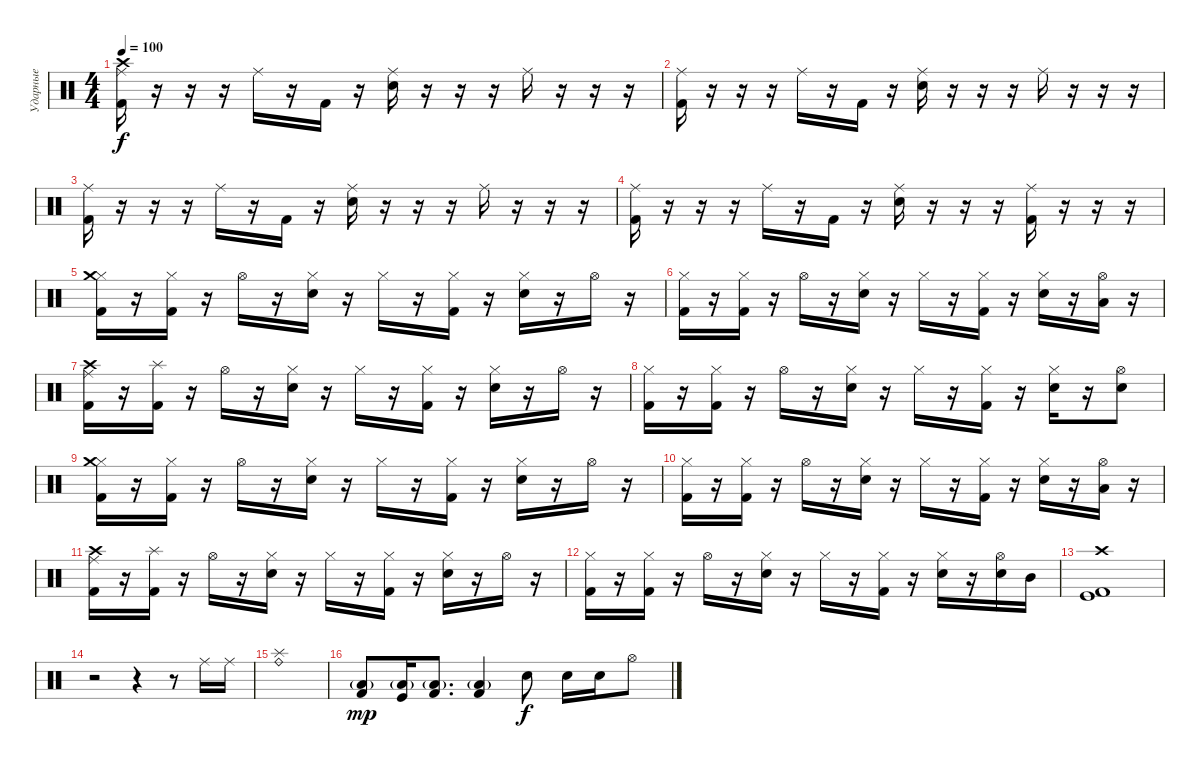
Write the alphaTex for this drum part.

\track ("Ударные" "Ударные") {instrument percussion}
\staff {score}
\articulation defaults
\ts (4 4)
\tempo 100
\clef neutral
\ks c
("Ride (middle)" "Crash high (hit)" "Kick (hit) 2").16{dy f} r.16 r.16 r.16 "Ride (middle)".16 r.16 "Kick (hit) 2".16 r.16 ("Ride (middle)" "Snare (hit) 2").16 r.16 r.16 r.16 "Ride (middle)".16 r.16 r.16 r.16 |
("Ride (middle)" "Kick (hit) 2").16 r.16 r.16 r.16 "Ride (middle)".16 r.16 "Kick (hit) 2".16 r.16 ("Ride (middle)" "Snare (hit) 2").16 r.16 r.16 r.16 "Ride (middle)".16 r.16 r.16 r.16 |
("Ride (middle)" "Kick (hit) 2").16 r.16 r.16 r.16 "Ride (middle)".16 r.16 "Kick (hit) 2".16 r.16 ("Ride (middle)" "Snare (hit) 2").16 r.16 r.16 r.16 "Ride (middle)".16 r.16 r.16 r.16 |
("Ride (middle)" "Kick (hit) 2").16 r.16 r.16 r.16 "Ride (middle)".16 r.16 "Kick (hit) 2".16 r.16 ("Ride (middle)" "Snare (hit) 2").16 r.16 r.16 r.16 ("Ride (middle)" "Kick (hit) 2").16 r.16 r.16 r.16 |
("Hi-Hat (closed)" "Crash medium (hit)" "Kick (hit) 2").16 r.16 ("Hi-Hat (closed)" "Kick (hit) 2").16 r.16 "Hi-Hat (open)".16 r.16 ("Hi-Hat (closed)" "Electric Snare (hit)").16 r.16 "Hi-Hat (closed)".16 r.16 ("Hi-Hat (closed)" "Kick (hit) 2").16 r.16 ("Hi-Hat (closed)" "Electric Snare (hit)").16 r.16 "Hi-Hat (open)".16 r.16 |
("Hi-Hat (closed)" "Kick (hit) 2").16 r.16 ("Hi-Hat (closed)" "Kick (hit) 2").16 r.16 "Hi-Hat (open)".16 r.16 ("Hi-Hat (closed)" "Electric Snare (hit)").16 r.16 "Hi-Hat (closed)".16 r.16 ("Hi-Hat (closed)" "Kick (hit) 2").16 r.16 ("Hi-Hat (closed)" "Electric Snare (hit)").16 r.16 ("Hi-Hat (open)" "Low Tom (hit)").16 r.16 |
("Ride (middle)" "Crash high (hit)" "Kick (hit) 2").16 r.16 ("Splash (hit)" "Kick (hit) 2").16 r.16 "Hi-Hat (open)".16 r.16 ("Hi-Hat (closed)" "Electric Snare (hit)").16 r.16 "Hi-Hat (closed)".16 r.16 ("Hi-Hat (closed)" "Kick (hit) 2").16 r.16 ("Hi-Hat (closed)" "Electric Snare (hit)").16 r.16 "Hi-Hat (open)".16 r.16 |
("Hi-Hat (closed)" "Kick (hit) 2").16 r.16 ("Hi-Hat (closed)" "Kick (hit) 2").16 r.16 "Hi-Hat (open)".16 r.16 ("Hi-Hat (closed)" "Electric Snare (hit)").16 r.16 "Hi-Hat (closed)".16 r.16 ("Hi-Hat (closed)" "Kick (hit) 2").16 r.16 ("Hi-Hat (closed)" "Electric Snare (hit)").16 r.16 ("Hi-Hat (open)" "Electric Snare (hit)").8 |
("Hi-Hat (closed)" "Crash medium (hit)" "Kick (hit) 2").16 r.16 ("Hi-Hat (closed)" "Kick (hit) 2").16 r.16 "Hi-Hat (open)".16 r.16 ("Hi-Hat (closed)" "Electric Snare (hit)").16 r.16 "Hi-Hat (closed)".16 r.16 ("Hi-Hat (closed)" "Kick (hit) 2").16 r.16 ("Hi-Hat (closed)" "Electric Snare (hit)").16 r.16 "Hi-Hat (open)".16 r.16 |
("Hi-Hat (closed)" "Kick (hit) 2").16 r.16 ("Hi-Hat (closed)" "Kick (hit) 2").16 r.16 "Hi-Hat (open)".16 r.16 ("Hi-Hat (closed)" "Electric Snare (hit)").16 r.16 "Hi-Hat (closed)".16 r.16 ("Hi-Hat (closed)" "Kick (hit) 2").16 r.16 ("Hi-Hat (closed)" "Electric Snare (hit)").16 r.16 ("Hi-Hat (open)" "Low Tom (hit)").16 r.16 |
("Ride (middle)" "Crash high (hit)" "Kick (hit) 2").16 r.16 ("Splash (hit)" "Kick (hit) 2").16 r.16 "Hi-Hat (open)".16 r.16 ("Hi-Hat (closed)" "Electric Snare (hit)").16 r.16 "Hi-Hat (closed)".16 r.16 ("Hi-Hat (closed)" "Kick (hit) 2").16 r.16 ("Hi-Hat (closed)" "Electric Snare (hit)").16 r.16 "Hi-Hat (open)".16 r.16 |
("Hi-Hat (closed)" "Kick (hit) 2").16 r.16 ("Hi-Hat (closed)" "Kick (hit) 2").16 r.16 "Hi-Hat (open)".16 r.16 ("Hi-Hat (closed)" "Electric Snare (hit)").16 r.16 "Hi-Hat (closed)".16 r.16 ("Hi-Hat (closed)" "Kick (hit) 2").16 r.16 ("Hi-Hat (closed)" "Electric Snare (hit)").16 r.16 ("Hi-Hat (open)" "Electric Snare (hit)").16 "Mid Tom (hit)".16 |
("Crash high (hit)" "Kick (hit) 2" "Kick (hit)").1 |
r.2 r.4 r.8 "Ride (middle)".16 "Ride (middle)".16 |
("Ride (bell)" "Splash (hit)").1 |
("Low Floor Tom (hit)"{g} "Kick (hit) 2").8{dy mp} ("Low Tom (hit)"{g} "Kick (hit)").16 ("Low Floor Tom (hit)"{g} "Kick (hit) 2").8{d} ("Low Floor Tom (hit)"{g} "Kick (hit) 2").4 "Snare (hit) 2".8{dy f} "Snare (hit) 2".16 "Snare (hit) 2".16 "Hi-Hat (open)".8
